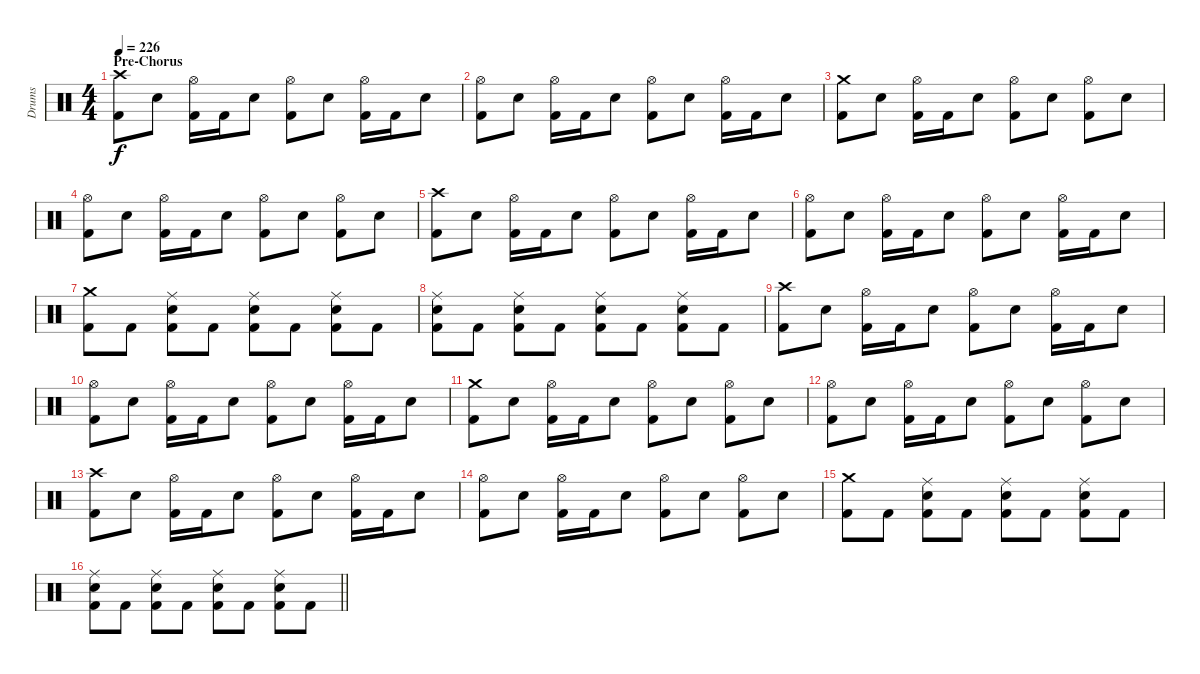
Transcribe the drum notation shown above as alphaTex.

\track ("Drums" "Drums") {instrument percussion}
\staff {score}
\articulation defaults
\ts (4 4)
\section ("" "Pre-Chorus")
\tempo 226
\clef neutral
\ks c
("Crash high (hit)" "Kick (hit) 2").8{dy f} "Snare (hit) 2".8 ("Hi-Hat (open)" "Kick (hit) 2").16 "Kick (hit) 2".16 "Snare (hit) 2".8 ("Hi-Hat (open)" "Kick (hit) 2").8 "Snare (hit) 2".8 ("Hi-Hat (open)" "Kick (hit) 2").16 "Kick (hit) 2".16 "Snare (hit) 2".8 |
("Hi-Hat (open)" "Kick (hit) 2").8 "Snare (hit) 2".8 ("Hi-Hat (open)" "Kick (hit) 2").16 "Kick (hit) 2".16 "Snare (hit) 2".8 ("Hi-Hat (open)" "Kick (hit) 2").8 "Snare (hit) 2".8 ("Hi-Hat (open)" "Kick (hit) 2").16 "Kick (hit) 2".16 "Snare (hit) 2".8 |
("Crash medium (hit)" "Kick (hit) 2").8 "Snare (hit) 2".8 ("Hi-Hat (open)" "Kick (hit) 2").16 "Kick (hit) 2".16 "Snare (hit) 2".8 ("Hi-Hat (open)" "Kick (hit) 2").8 "Snare (hit) 2".8 ("Hi-Hat (open)" "Kick (hit) 2").8 "Snare (hit) 2".8 |
("Hi-Hat (open)" "Kick (hit) 2").8 "Snare (hit) 2".8 ("Hi-Hat (open)" "Kick (hit) 2").16 "Kick (hit) 2".16 "Snare (hit) 2".8 ("Hi-Hat (open)" "Kick (hit) 2").8 "Snare (hit) 2".8 ("Hi-Hat (open)" "Kick (hit) 2").8 "Snare (hit) 2".8 |
("Crash high (hit)" "Kick (hit) 2").8 "Snare (hit) 2".8 ("Hi-Hat (open)" "Kick (hit) 2").16 "Kick (hit) 2".16 "Snare (hit) 2".8 ("Hi-Hat (open)" "Kick (hit) 2").8 "Snare (hit) 2".8 ("Hi-Hat (open)" "Kick (hit) 2").16 "Kick (hit) 2".16 "Snare (hit) 2".8 |
("Hi-Hat (open)" "Kick (hit) 2").8 "Snare (hit) 2".8 ("Hi-Hat (open)" "Kick (hit) 2").16 "Kick (hit) 2".16 "Snare (hit) 2".8 ("Hi-Hat (open)" "Kick (hit) 2").8 "Snare (hit) 2".8 ("Hi-Hat (open)" "Kick (hit) 2").16 "Kick (hit) 2".16 "Snare (hit) 2".8 |
("Crash medium (hit)" "Kick (hit) 2").8 "Kick (hit) 2".8 ("Ride (middle)" "Snare (hit) 2" "Kick (hit) 2").8 "Kick (hit) 2".8 ("Ride (middle)" "Snare (hit) 2" "Kick (hit) 2").8 "Kick (hit) 2".8 ("Ride (middle)" "Snare (hit) 2" "Kick (hit) 2").8 "Kick (hit) 2".8 |
("Ride (middle)" "Snare (hit) 2" "Kick (hit) 2").8 "Kick (hit) 2".8 ("Ride (middle)" "Snare (hit) 2" "Kick (hit) 2").8 "Kick (hit) 2".8 ("Ride (middle)" "Snare (hit) 2" "Kick (hit) 2").8 "Kick (hit) 2".8 ("Ride (middle)" "Snare (hit) 2" "Kick (hit) 2").8 "Kick (hit) 2".8 |
("Crash high (hit)" "Kick (hit) 2").8 "Snare (hit) 2".8 ("Hi-Hat (open)" "Kick (hit) 2").16 "Kick (hit) 2".16 "Snare (hit) 2".8 ("Hi-Hat (open)" "Kick (hit) 2").8 "Snare (hit) 2".8 ("Hi-Hat (open)" "Kick (hit) 2").16 "Kick (hit) 2".16 "Snare (hit) 2".8 |
("Hi-Hat (open)" "Kick (hit) 2").8 "Snare (hit) 2".8 ("Hi-Hat (open)" "Kick (hit) 2").16 "Kick (hit) 2".16 "Snare (hit) 2".8 ("Hi-Hat (open)" "Kick (hit) 2").8 "Snare (hit) 2".8 ("Hi-Hat (open)" "Kick (hit) 2").16 "Kick (hit) 2".16 "Snare (hit) 2".8 |
("Crash medium (hit)" "Kick (hit) 2").8 "Snare (hit) 2".8 ("Hi-Hat (open)" "Kick (hit) 2").16 "Kick (hit) 2".16 "Snare (hit) 2".8 ("Hi-Hat (open)" "Kick (hit) 2").8 "Snare (hit) 2".8 ("Hi-Hat (open)" "Kick (hit) 2").8 "Snare (hit) 2".8 |
("Hi-Hat (open)" "Kick (hit) 2").8 "Snare (hit) 2".8 ("Hi-Hat (open)" "Kick (hit) 2").16 "Kick (hit) 2".16 "Snare (hit) 2".8 ("Hi-Hat (open)" "Kick (hit) 2").8 "Snare (hit) 2".8 ("Hi-Hat (open)" "Kick (hit) 2").8 "Snare (hit) 2".8 |
("Crash high (hit)" "Kick (hit) 2").8 "Snare (hit) 2".8 ("Hi-Hat (open)" "Kick (hit) 2").16 "Kick (hit) 2".16 "Snare (hit) 2".8 ("Hi-Hat (open)" "Kick (hit) 2").8 "Snare (hit) 2".8 ("Hi-Hat (open)" "Kick (hit) 2").16 "Kick (hit) 2".16 "Snare (hit) 2".8 |
("Hi-Hat (open)" "Kick (hit) 2").8 "Snare (hit) 2".8 ("Hi-Hat (open)" "Kick (hit) 2").16 "Kick (hit) 2".16 "Snare (hit) 2".8 ("Hi-Hat (open)" "Kick (hit) 2").8 "Snare (hit) 2".8 ("Hi-Hat (open)" "Kick (hit) 2").8 "Snare (hit) 2".8 |
("Crash medium (hit)" "Kick (hit) 2").8 "Kick (hit) 2".8 ("Ride (middle)" "Snare (hit) 2" "Kick (hit) 2").8 "Kick (hit) 2".8 ("Ride (middle)" "Snare (hit) 2" "Kick (hit) 2").8 "Kick (hit) 2".8 ("Ride (middle)" "Snare (hit) 2" "Kick (hit) 2").8 "Kick (hit) 2".8 |
\barLineRight lightlight
("Ride (middle)" "Snare (hit) 2" "Kick (hit) 2").8 "Kick (hit) 2".8 ("Ride (middle)" "Snare (hit) 2" "Kick (hit) 2").8 "Kick (hit) 2".8 ("Ride (middle)" "Snare (hit) 2" "Kick (hit) 2").8 "Kick (hit) 2".8 ("Ride (middle)" "Snare (hit) 2" "Kick (hit) 2").8 "Kick (hit) 2".8
